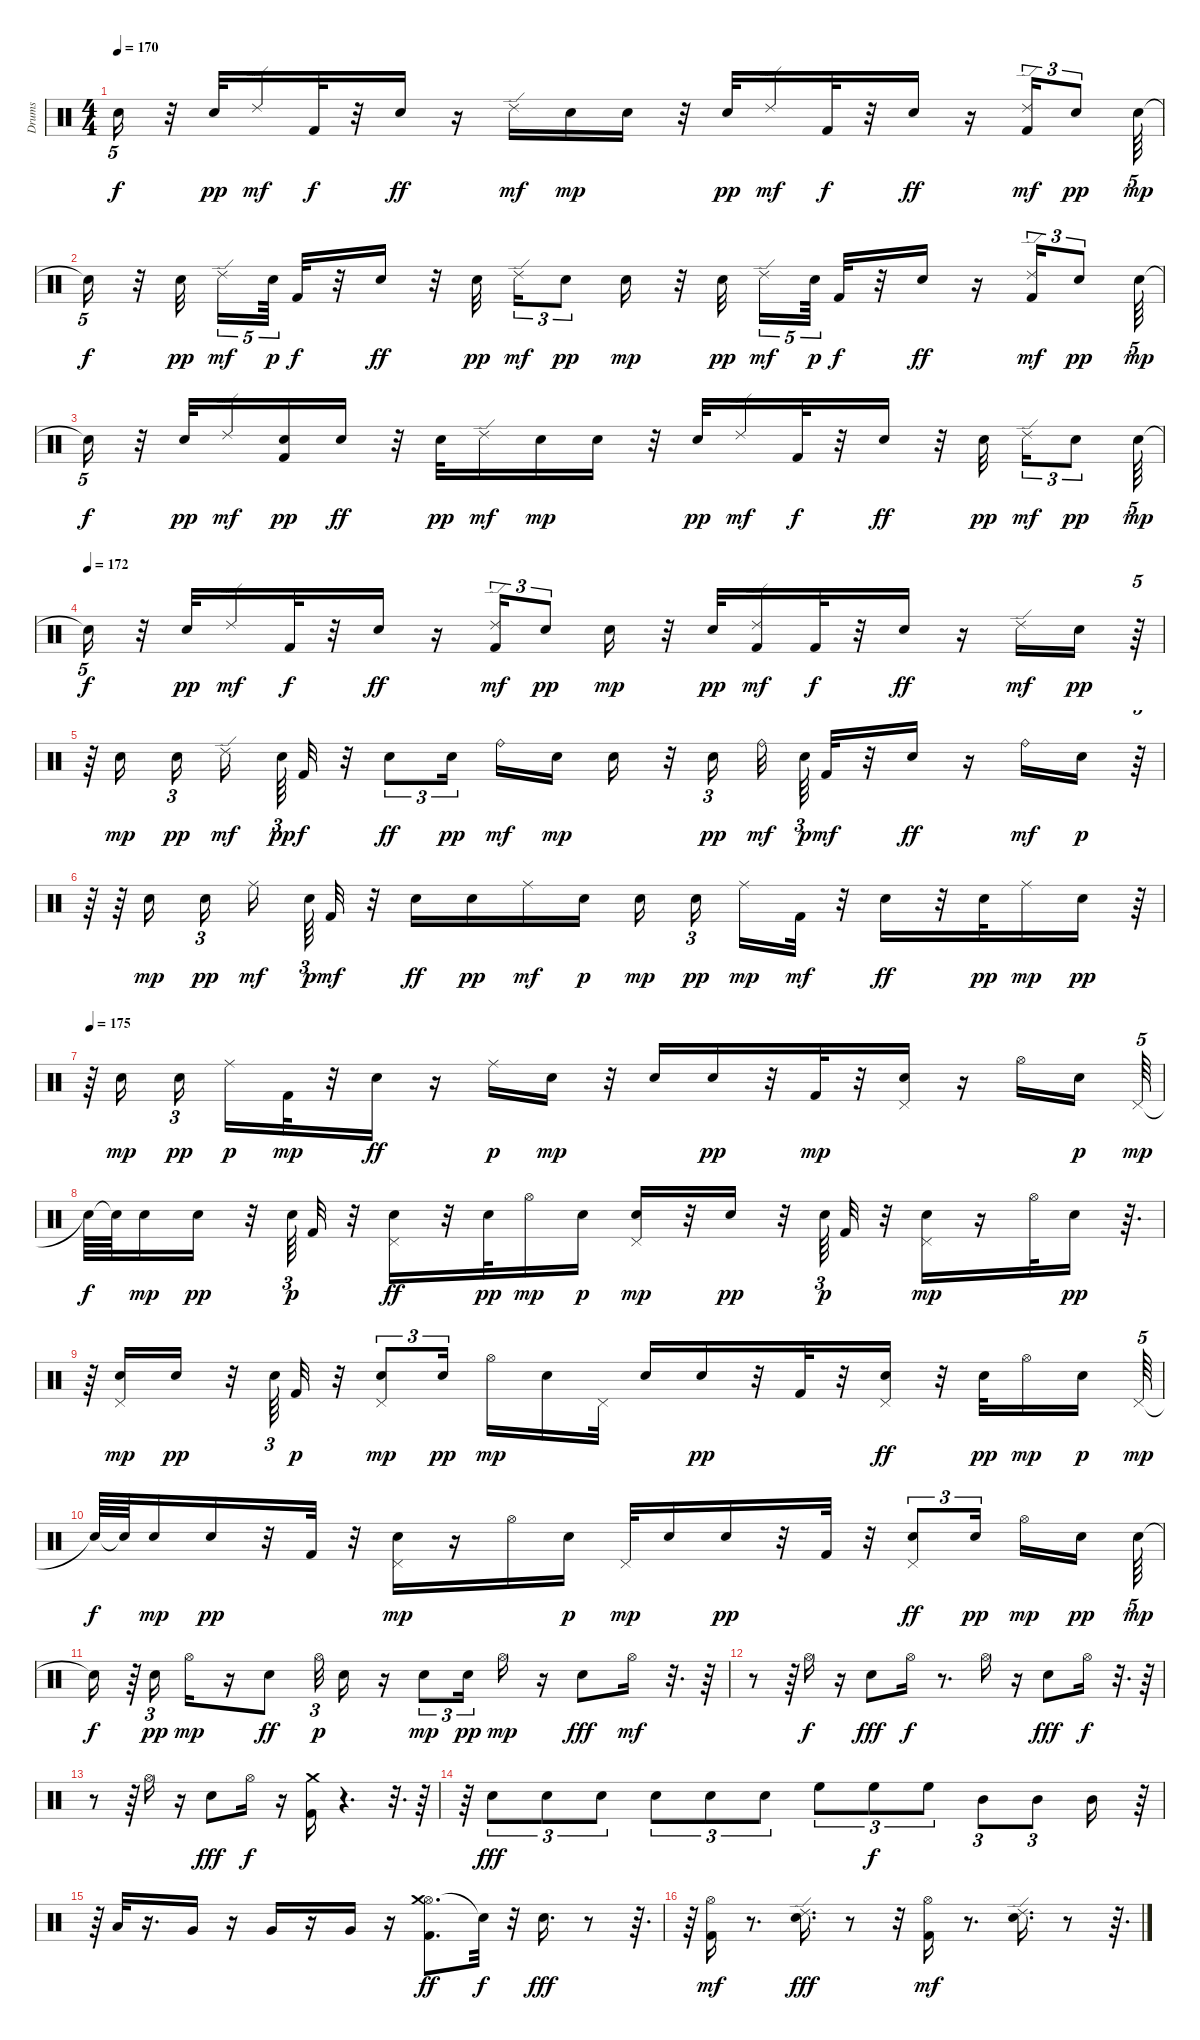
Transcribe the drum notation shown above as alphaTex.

\track ("Drums" "Drums") {instrument percussion}
\staff {score}
\articulation defaults
\ts (4 4)
\tempo 170
\clef neutral
\ks c "Snare (hit)"{t}.16{tu (5 4) dy f}
r.32 "Snare (hit) 2".32{dy pp} "Ride (edge) 2".16{dy mf} "Kick (hit) 2".32{dy f} r.32 "Snare (hit) 2".16{dy ff} r.16 "Ride (edge) 2".16{dy mf} "Snare (hit) 2".16{dy mp} "Snare (hit) 2".16 r.32 "Snare (hit) 2".32{dy pp} "Ride (edge) 2".16{dy mf} "Kick (hit) 2".32{dy f} r.32 "Snare (hit) 2".16{dy ff} r.16 ("Ride (edge) 2" "Kick (hit) 2").16{tu (3 2) dy mf} "Snare (hit) 2".8{tu (3 2) dy pp} "Snare (hit) 2".64{tu (5 4) dy mp} |
"Snare (hit)"{t}.16{tu (5 4) dy f} r.32 "Snare (hit) 2".32{dy pp} "Ride (edge) 2".16{tu (5 4) dy mf} "Snare (hit) 2".64{tu (5 4) dy p} "Kick (hit) 2".32{dy f} r.32 "Snare (hit) 2".16{dy ff} r.32 "Snare (hit) 2".32{dy pp} "Ride (edge) 2".16{tu (3 2) dy mf} "Snare (hit) 2".8{tu (3 2) dy pp} "Snare (hit) 2".16{dy mp} r.32 "Snare (hit) 2".32{dy pp} "Ride (edge) 2".16{tu (5 4) dy mf} "Snare (hit) 2".64{tu (5 4) dy p} "Kick (hit) 2".32{dy f} r.32 "Snare (hit) 2".16{dy ff} r.16 ("Ride (edge) 2" "Kick (hit) 2").16{tu (3 2) dy mf} "Snare (hit) 2".8{tu (3 2) dy pp} "Snare (hit) 2".64{tu (5 4) dy mp} |
"Snare (hit)"{t}.16{tu (5 4) dy f} r.32 "Snare (hit) 2".32{dy pp} "Ride (edge) 2".16{dy mf} ("Snare (hit) 2" "Kick (hit) 2").16{dy pp} "Snare (hit) 2".16{dy ff} r.32 "Snare (hit) 2".32{dy pp} "Ride (edge) 2".16{dy mf} "Snare (hit) 2".16{dy mp} "Snare (hit) 2".16 r.32 "Snare (hit) 2".32{dy pp} "Ride (edge) 2".16{dy mf} "Kick (hit) 2".32{dy f} r.32 "Snare (hit) 2".16{dy ff} r.32 "Snare (hit) 2".32{dy pp} "Ride (edge) 2".16{tu (3 2) dy mf} "Snare (hit) 2".8{tu (3 2) dy pp} "Snare (hit) 2".64{tu (5 4) dy mp} |
\tempo (172)
"Snare (hit)"{t}.16{tu (5 4) dy f} r.32 "Snare (hit) 2".32{dy pp} "Ride (edge) 2".16{dy mf} "Kick (hit) 2".32{dy f} r.32 "Snare (hit) 2".16{dy ff} r.16 ("Ride (edge) 2" "Kick (hit) 2").16{tu (3 2) dy mf} "Snare (hit) 2".8{tu (3 2) dy pp} "Snare (hit) 2".16{dy mp} r.32 "Snare (hit) 2".32{dy pp volume 10} ("Kick (hit) 2" "Ride (edge) 2").16{dy mf volume 10} "Kick (hit) 2".32{dy f volume 10} r.32 "Snare (hit) 2".16{dy ff volume 10} r.16 "Ride (edge) 2".16{dy mf volume 9} "Snare (hit) 2".16{dy pp volume 9} r.64{tu (5 4)} |
r.64 "Snare (hit) 2".16{dy mp volume 9} "Snare (hit) 2".16{tu (3 2) dy pp volume 9} "Ride (edge) 2".16{dy mf volume 9} "Snare (hit) 2".64{tu (3 2) dy pp volume 8} "Kick (hit) 2".32{dy f volume 8} r.32 "Snare (hit) 2".8{tu (3 2) dy ff} "Snare (hit) 2".16{tu (3 2) dy pp} "Ride (bell)".16{dy mf} "Snare (hit) 2".16{dy mp} "Snare (hit) 2".16 r.32 "Snare (hit) 2".16{tu (3 2) dy pp} "Ride (bell)".32{dy mf} "Snare (hit) 2".64{tu (3 2) dy p} "Kick (hit) 2".32{dy mf} r.32 "Snare (hit) 2".16{dy ff} r.16 "Ride (bell)".16{dy mf} "Snare (hit) 2".16{dy p} r.64{tu (5 4)} |
r.64 r.64 "Snare (hit) 2".16{dy mp} "Snare (hit) 2".16{tu (3 2) dy pp} "Ride (middle)".16{dy mf} "Snare (hit) 2".64{tu (3 2) dy p} "Kick (hit) 2".32{dy mf} r.32 "Snare (hit) 2".16{dy ff} "Snare (hit) 2".16{dy pp} "Ride (middle)".16{dy mf} "Snare (hit) 2".16{dy p} "Snare (hit) 2".16{dy mp} "Snare (hit) 2".16{tu (3 2) dy pp} "Ride (middle)".16{dy mp} "Kick (hit) 2".32{dy mf} r.32 "Snare (hit) 2".16{dy ff} r.32 "Snare (hit) 2".32{dy pp} "Ride (middle)".16{dy mp} "Snare (hit) 2".16{dy pp} r.64{tu (5 4)} |
\tempo 175
r.64 "Snare (hit) 2".16{dy mp} "Snare (hit) 2".16{tu (3 2) dy pp} "Ride (middle)".16{dy p} "Kick (hit) 2".32{dy mp} r.32 "Snare (hit) 2".16{dy ff} r.16 "Ride (middle)".16{dy p} "Snare (hit) 2".16{dy mp} r.32 "Snare (hit) 2".16 "Snare (hit) 2".16{dy pp} r.32 "Kick (hit) 2".32{dy mp} r.32 ("Snare (hit) 2" "Pedal Hi-Hat (hit)").16 r.16 "Hi-Hat (open)".16 "Snare (hit) 2".16{dy p} "Pedal Hi-Hat (hit)".64{tu (5 4) dy mp} |
"Snare (hit)"{t}.64{dy f} "Snare (hit)"{t}.64 "Snare (hit) 2".16{dy mp} "Snare (hit) 2".16{dy pp} r.32 "Snare (hit) 2".64{tu (3 2) dy p} "Kick (hit) 2".32 r.32 ("Pedal Hi-Hat (hit)" "Snare (hit) 2").16{dy ff} r.32 "Snare (hit) 2".32{dy pp} "Hi-Hat (open)".16{dy mp} "Snare (hit) 2".16{dy p} ("Pedal Hi-Hat (hit)" "Snare (hit) 2").16{dy mp} r.32 "Snare (hit) 2".16{dy pp} r.32 "Snare (hit) 2".64{tu (3 2) dy p} "Kick (hit) 2".32 r.32 ("Snare (hit) 2" "Pedal Hi-Hat (hit)").16{dy mp} r.16 "Hi-Hat (open)".32 "Snare (hit) 2".16{dy pp} r.64{d} |
r.64 ("Pedal Hi-Hat (hit)" "Snare (hit) 2").16{dy mp} "Snare (hit) 2".16{dy pp} r.32 "Snare (hit) 2".64{tu (3 2) volume 6} "Kick (hit) 2".32{dy p} r.32 ("Snare (hit) 2" "Pedal Hi-Hat (hit)").8{tu (3 2) dy mp} "Snare (hit) 2".16{tu (3 2) dy pp volume 7} "Hi-Hat (open)".16{dy mp} "Snare (hit) 2".16{volume 8} "Pedal Hi-Hat (hit)".32{volume 8} "Snare (hit) 2".16 "Snare (hit) 2".16{dy pp} r.32 "Kick (hit) 2".32{volume 8} r.32 ("Pedal Hi-Hat (hit)" "Snare (hit) 2").16{dy ff} r.32 "Snare (hit) 2".32{dy pp volume 8} "Hi-Hat (open)".16{dy mp} "Snare (hit) 2".16{dy p volume 9} "Pedal Hi-Hat (hit)".64{tu (5 4) dy mp} |
"Snare (hit)"{t}.64{dy f} "Snare (hit)"{t}.64 "Snare (hit) 2".16{dy mp} "Snare (hit) 2".16{dy pp volume 9} r.32 "Kick (hit) 2".32 r.32 ("Snare (hit) 2" "Pedal Hi-Hat (hit)").16{dy mp volume 9} r.16 "Hi-Hat (open)".16{volume 9} "Snare (hit) 2".16{dy p} "Pedal Hi-Hat (hit)".32{dy mp} "Snare (hit) 2".16 "Snare (hit) 2".16{dy pp volume 9} r.32 "Kick (hit) 2".32{volume 9} r.32 ("Pedal Hi-Hat (hit)" "Snare (hit) 2").8{tu (3 2) dy ff} "Snare (hit) 2".16{tu (3 2) dy pp volume 9} "Hi-Hat (open)".16{dy mp} "Snare (hit) 2".16{dy pp} "Snare (hit) 2".64{tu (5 4) dy mp volume 10} |
"Snare (hit)"{t}.16{dy f} r.64 "Snare (hit) 2".16{tu (3 2) dy pp} "Hi-Hat (open)".16{dy mp volume 10} r.16 "Snare (hit) 2".8{dy ff volume 10} "Hi-Hat (open)".32{tu (3 2) dy p volume 10} "Snare (hit) 2".16 r.16 "Snare (hit) 2".8{tu (3 2) dy mp} "Snare (hit) 2".16{tu (3 2) dy pp volume 10} "Hi-Hat (open)".16{dy mp} r.16 "Snare (hit) 2".8{dy fff volume 10} "Hi-Hat (open)".16{dy mf volume 10} r.32{d} r.64 |
r.8 r.64 "Hi-Hat (open)".16{dy f volume 10} r.16 "Snare (hit) 2".8{dy fff volume 11} "Hi-Hat (open)".16{dy f} r.8{d} "Hi-Hat (open)".16{volume 11} r.16 "Snare (hit) 2".8{dy fff volume 11} "Hi-Hat (open)".16{dy f volume 11} r.32{d} r.64 |
r.8 r.64 "Hi-Hat (open)".16{volume 11} r.16 "Snare (hit) 2".8{dy fff volume 12} "Hi-Hat (open)".16{dy f volume 12} r.16 ("Crash medium (hit)" "Kick (hit) 2").16{volume 12} r.4{d} r.32{d} r.64 |
r.64 "Snare (hit) 2".8{tu (3 2) dy fff volume 12} "Snare (hit) 2".8{tu (3 2)} "Snare (hit) 2".8{tu (3 2)} "Snare (hit) 2".8{tu (3 2)} "Snare (hit) 2".8{tu (3 2)} "Snare (hit) 2".8{tu (3 2)} "High Floor Tom (hit)".8{tu (3 2)} "High Floor Tom (hit)".8{tu (3 2) dy f} "High Floor Tom (hit)".8{tu (3 2)} "Mid Tom (hit)".8{tu (3 2)} "Mid Tom (hit)".8{tu (3 2)} "Mid Tom (hit)".16 r.64{tu (5 4)} |
r.64 "Low Tom (hit)".32 r.16{d} "Very Low Tom (hit)".16 r.16 "Very Low Tom (hit)".16 r.16 "Very Low Tom (hit)".16 r.16 ("Hi-Hat (open)" "Kick (hit) 2" "Crash medium (hit)").8{d dy ff volume 13} "Snare (hit)"{t}.32{dy f} r.32 "Snare (hit) 2".16{d dy fff} r.8 r.64{d} |
r.64 ("Hi-Hat (open)" "Kick (hit) 2").16{dy mf} r.8{d} ("Ride (edge) 2" "Snare (hit) 2").16{d dy fff} r.8 r.32 ("Kick (hit) 2" "Hi-Hat (open)").16{dy mf} r.8{d} ("Snare (hit) 2" "Ride (edge) 2").16{d} r.8 r.64{d}
